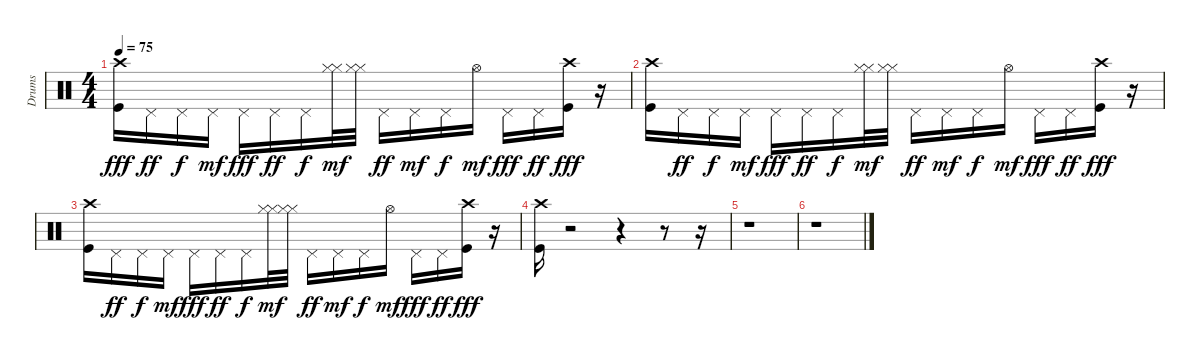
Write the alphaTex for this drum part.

\track ("Drums" "Drums") {instrument percussion}
\staff {score}
\articulation defaults
\ts (4 4)
\tempo 75
\clef neutral
\ks c
("Crash high (hit)" "Kick (hit)").16{dy fff} "Pedal Hi-Hat (hit)".16{dy ff} "Pedal Hi-Hat (hit)".16{dy f} "Pedal Hi-Hat (hit)".16{dy mf} "Pedal Hi-Hat (hit)".16{dy fff} "Pedal Hi-Hat (hit)".16{dy ff} "Pedal Hi-Hat (hit)".16{dy f} ("Hi-Hat (closed)" "Hi-Hat (closed)").32{dy mf} ("Hi-Hat (closed)" "Hi-Hat (closed)").32 "Pedal Hi-Hat (hit)".16{dy ff} "Pedal Hi-Hat (hit)".16{dy mf} "Pedal Hi-Hat (hit)".16{dy f} "Hi-Hat (open)".16{dy mf} "Pedal Hi-Hat (hit)".16{dy fff} "Pedal Hi-Hat (hit)".16{dy ff} ("Crash high (hit)" "Kick (hit)").16{dy fff} r.16 |
("Kick (hit)" "Crash high (hit)").16 "Pedal Hi-Hat (hit)".16{dy ff} "Pedal Hi-Hat (hit)".16{dy f} "Pedal Hi-Hat (hit)".16{dy mf} "Pedal Hi-Hat (hit)".16{dy fff} "Pedal Hi-Hat (hit)".16{dy ff} "Pedal Hi-Hat (hit)".16{dy f} ("Hi-Hat (closed)" "Hi-Hat (closed)").32{dy mf} ("Hi-Hat (closed)" "Hi-Hat (closed)").32 "Pedal Hi-Hat (hit)".16{dy ff} "Pedal Hi-Hat (hit)".16{dy mf} "Pedal Hi-Hat (hit)".16{dy f} "Hi-Hat (open)".16{dy mf} "Pedal Hi-Hat (hit)".16{dy fff} "Pedal Hi-Hat (hit)".16{dy ff} ("Kick (hit)" "Crash high (hit)").16{dy fff} r.16 |
("Crash high (hit)" "Kick (hit)").16 "Pedal Hi-Hat (hit)".16{dy ff} "Pedal Hi-Hat (hit)".16{dy f} "Pedal Hi-Hat (hit)".16{dy mf} "Pedal Hi-Hat (hit)".16{dy fff} "Pedal Hi-Hat (hit)".16{dy ff} "Pedal Hi-Hat (hit)".16{dy f} ("Hi-Hat (closed)" "Hi-Hat (closed)").32{dy mf} ("Hi-Hat (closed)" "Hi-Hat (closed)").32 "Pedal Hi-Hat (hit)".16{dy ff} "Pedal Hi-Hat (hit)".16{dy mf} "Pedal Hi-Hat (hit)".16{dy f} "Hi-Hat (open)".16{dy mf} "Pedal Hi-Hat (hit)".16{dy fff} "Pedal Hi-Hat (hit)".16{dy ff} ("Crash high (hit)" "Kick (hit)").16{dy fff} r.16 |
("Crash high (hit)" "Kick (hit)").16 r.2 r.4 r.8 r.16 |
r.1 |
r.1
